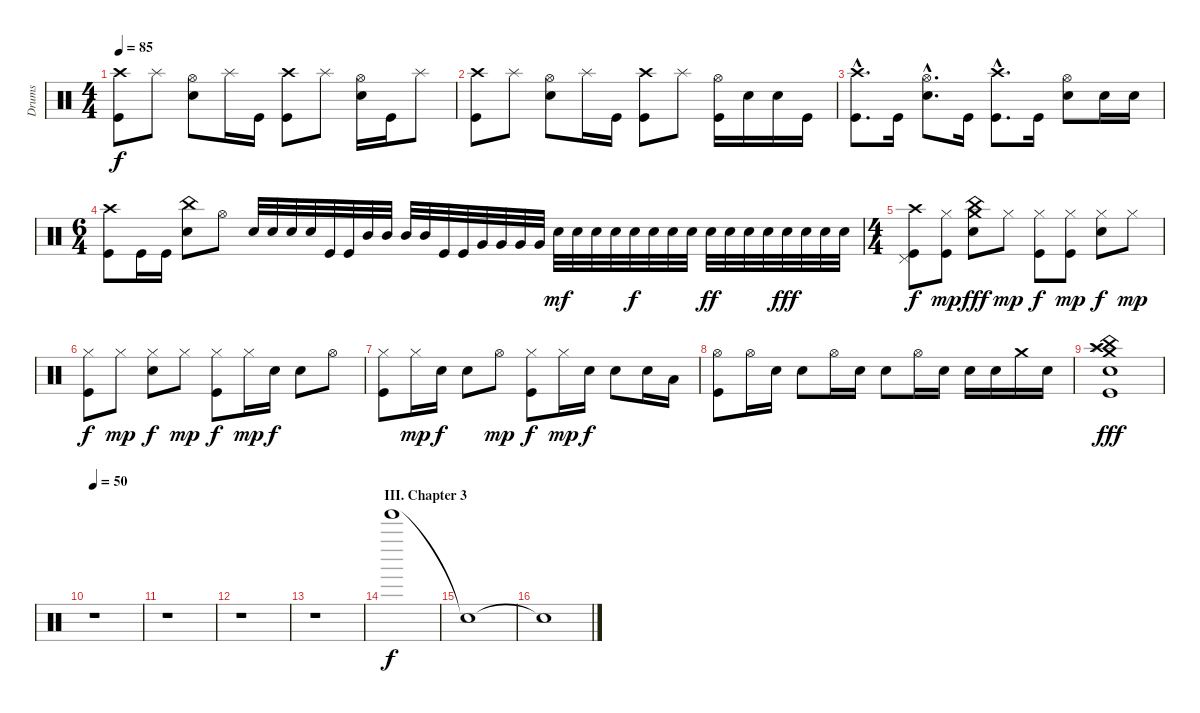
\track ("Drums" "Drums") {instrument percussion}
\staff {score}
\articulation defaults
\ts (4 4)
\tempo 85
\clef neutral
\ks c
("Crash high (hit)" "Kick (hit)").8{dy f} "Splash (hit)".8 ("Hi-Hat (open)" "Electric Snare (hit)").8 "Splash (hit)".16 "Kick (hit)".16 ("Crash high (hit)" "Kick (hit)").8 "Splash (hit)".8 ("Hi-Hat (open)" "Electric Snare (hit)").16 "Kick (hit)".16 "Splash (hit)".8 |
("Crash high (hit)" "Kick (hit)").8 "Splash (hit)".8 ("Hi-Hat (open)" "Electric Snare (hit)").8 "Splash (hit)".16 "Kick (hit)".16 ("Crash high (hit)" "Kick (hit)").8 "Splash (hit)".8 ("Hi-Hat (open)" "Kick (hit)").16 "Electric Snare (hit)".16 "Electric Snare (hit)".16 "Kick (hit)".16 |
("Crash high (hit)"{hac} "Kick (hit)"{hac}).8{d} "Kick (hit)".16 ("Hi-Hat (open)"{hac} "Electric Snare (hit)"{hac}).8{d} "Kick (hit)".16 ("Crash high (hit)"{hac} "Kick (hit)"{hac}).8{d} "Kick (hit)".16 ("Hi-Hat (open)" "Electric Snare (hit)").8 "Electric Snare (hit)".16 "Electric Snare (hit)".16 |
\ts (6 4)
("Crash high (hit)" "Kick (hit)").8 "Kick (hit)".16 "Kick (hit)".16 ("China (hit)" "Electric Snare (hit)").8 "Hi-Hat (open)".8 "Electric Snare (hit)".32 "Electric Snare (hit)".32 "Electric Snare (hit)".32 "Electric Snare (hit)".32 "Kick (hit)".32 "Kick (hit)".32 "Mid Tom (hit)".32 "Mid Tom (hit)".32 "Mid Tom (hit)".32 "Mid Tom (hit)".32 "Kick (hit)".32 "Kick (hit)".32 "Very Low Tom (hit)".32 "Very Low Tom (hit)".32 "Very Low Tom (hit)".32 "Very Low Tom (hit)".32 "Electric Snare (hit)".32{dy mf} "Electric Snare (hit)".32 "Electric Snare (hit)".32 "Electric Snare (hit)".32 "Electric Snare (hit)".32{dy f} "Electric Snare (hit)".32 "Electric Snare (hit)".32 "Electric Snare (hit)".32 "Electric Snare (hit)".32{dy ff} "Electric Snare (hit)".32 "Electric Snare (hit)".32 "Electric Snare (hit)".32 "Electric Snare (hit)".32{dy fff} "Electric Snare (hit)".32 "Electric Snare (hit)".32 "Electric Snare (hit)".32 |
\ts (4 4)
("Crash high (hit)" "Pedal Hi-Hat (hit)" "Kick (hit)").8{dy f} ("Hi-Hat (closed)" "Kick (hit)").8{dy mp} ("China (hit)" "Crash medium (hit)" "Electric Snare (hit)").8{dy fff} "Hi-Hat (closed)".8{dy mp} ("Hi-Hat (closed)" "Kick (hit)").8{dy f} ("Hi-Hat (closed)" "Kick (hit)").8{dy mp} ("Hi-Hat (closed)" "Electric Snare (hit)").8{dy f} "Hi-Hat (closed)".8{dy mp} |
("Hi-Hat (closed)" "Kick (hit)").8{dy f} "Hi-Hat (closed)".8{dy mp} ("Hi-Hat (closed)" "Electric Snare (hit)").8{dy f} "Hi-Hat (closed)".8{dy mp} ("Hi-Hat (closed)" "Kick (hit)").8{dy f} "Hi-Hat (closed)".16{dy mp} "Electric Snare (hit)".16{dy f} "Electric Snare (hit)".8 "Hi-Hat (open)".8 |
("Hi-Hat (closed)" "Kick (hit)").8 "Hi-Hat (closed)".16{dy mp} "Electric Snare (hit)".16{dy f} "Electric Snare (hit)".8 "Hi-Hat (open)".8{dy mp} ("Hi-Hat (closed)" "Kick (hit)").8{dy f} "Hi-Hat (closed)".16{dy mp} "Electric Snare (hit)".16{dy f} "Electric Snare (hit)".8 "Electric Snare (hit)".16 "Low Floor Tom (hit)".16 |
("Hi-Hat (open)" "Kick (hit)").8 "Hi-Hat (open)".16 "Electric Snare (hit)".16 "Electric Snare (hit)".8 "Hi-Hat (open)".16 "Electric Snare (hit)".16 "Electric Snare (hit)".8 "Hi-Hat (open)".16 "Electric Snare (hit)".16 "Electric Snare (hit)".16 "Electric Snare (hit)".16 "Crash medium (hit)".16 "Electric Snare (hit)".16 |
("Crash high (hit)" "Crash medium (hit)" "China (hit)" "Splash (hit)" "Electric Snare (hit)" "Kick (hit)").1{dy fff} |
\tempo 50
r.1 |
r.1 |
r.1 |
r.1{volume 0} |
\section ("" "III. Chapter 3")
"Tinkle Bell (hit)".1{dy f volume 16} |
"Snare (hit)"{t}.1 |
"Snare (hit)"{t}.1
